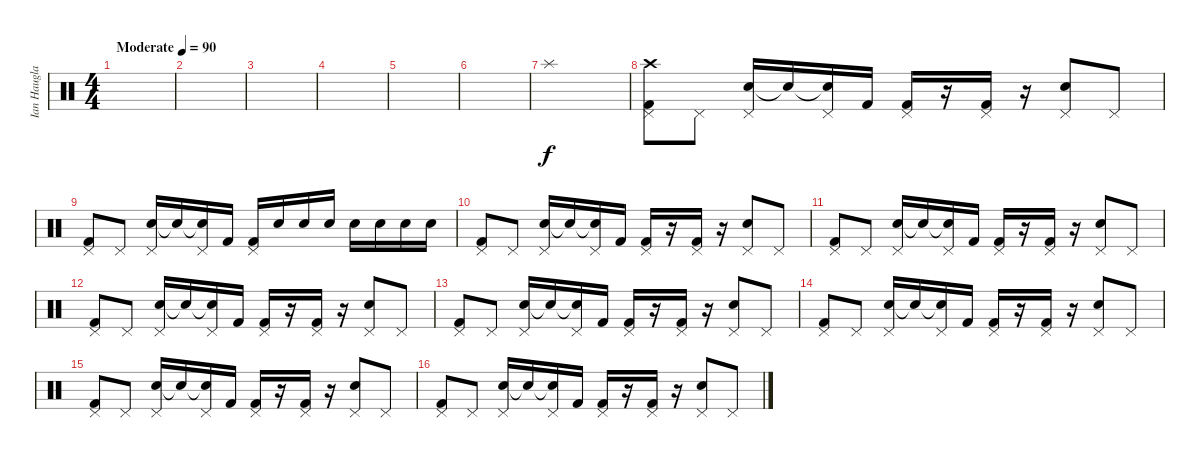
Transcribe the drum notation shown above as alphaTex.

\track ("Ian Haugland" "Ian Haugla") {instrument percussion}
\staff {score}
\articulation defaults
\ts (4 4)
\tempo (90 "Moderate")
\clef neutral
\ks c
|
|
|
|
|
|
"Splash (hit)".1 |
("Kick (hit) 2" "Pedal Hi-Hat (hit)" "Crash high (hit)").8 "Pedal Hi-Hat (hit)".8 ("Electric Snare (hit)" "Pedal Hi-Hat (hit)").16 "Snare (hit)"{t}.16 ("Snare (hit)"{t} "Pedal Hi-Hat (hit)").16 "Kick (hit) 2".16 ("Kick (hit) 2" "Pedal Hi-Hat (hit)").16 r.16 ("Kick (hit) 2" "Pedal Hi-Hat (hit)").16 r.16 ("Electric Snare (hit)" "Pedal Hi-Hat (hit)").8 "Pedal Hi-Hat (hit)".8 |
("Kick (hit) 2" "Pedal Hi-Hat (hit)").8 "Pedal Hi-Hat (hit)".8 ("Electric Snare (hit)" "Pedal Hi-Hat (hit)").16 "Snare (hit)"{t}.16 ("Snare (hit)"{t} "Pedal Hi-Hat (hit)").16 "Kick (hit) 2".16 ("Kick (hit) 2" "Pedal Hi-Hat (hit)").16 "Snare (hit) 2".16 "Snare (hit) 2".16 "Snare (hit) 2".16 "Snare (hit) 2".16 "Snare (hit) 2".16 "Snare (hit) 2".16 "Snare (hit) 2".16 |
("Kick (hit) 2" "Pedal Hi-Hat (hit)").8 "Pedal Hi-Hat (hit)".8 ("Electric Snare (hit)" "Pedal Hi-Hat (hit)").16 "Snare (hit)"{t}.16 ("Snare (hit)"{t} "Pedal Hi-Hat (hit)").16 "Kick (hit) 2".16 ("Kick (hit) 2" "Pedal Hi-Hat (hit)").16 r.16 ("Kick (hit) 2" "Pedal Hi-Hat (hit)").16 r.16 ("Electric Snare (hit)" "Pedal Hi-Hat (hit)").8 "Pedal Hi-Hat (hit)".8 |
("Kick (hit) 2" "Pedal Hi-Hat (hit)").8 "Pedal Hi-Hat (hit)".8 ("Electric Snare (hit)" "Pedal Hi-Hat (hit)").16 "Snare (hit)"{t}.16 ("Snare (hit)"{t} "Pedal Hi-Hat (hit)").16 "Kick (hit) 2".16 ("Kick (hit) 2" "Pedal Hi-Hat (hit)").16 r.16 ("Kick (hit) 2" "Pedal Hi-Hat (hit)").16 r.16 ("Electric Snare (hit)" "Pedal Hi-Hat (hit)").8 "Pedal Hi-Hat (hit)".8 |
("Kick (hit) 2" "Pedal Hi-Hat (hit)").8 "Pedal Hi-Hat (hit)".8 ("Electric Snare (hit)" "Pedal Hi-Hat (hit)").16 "Snare (hit)"{t}.16 ("Snare (hit)"{t} "Pedal Hi-Hat (hit)").16 "Kick (hit) 2".16 ("Kick (hit) 2" "Pedal Hi-Hat (hit)").16 r.16 ("Kick (hit) 2" "Pedal Hi-Hat (hit)").16 r.16 ("Electric Snare (hit)" "Pedal Hi-Hat (hit)").8 "Pedal Hi-Hat (hit)".8 |
("Kick (hit) 2" "Pedal Hi-Hat (hit)").8 "Pedal Hi-Hat (hit)".8 ("Electric Snare (hit)" "Pedal Hi-Hat (hit)").16 "Snare (hit)"{t}.16 ("Snare (hit)"{t} "Pedal Hi-Hat (hit)").16 "Kick (hit) 2".16 ("Kick (hit) 2" "Pedal Hi-Hat (hit)").16 r.16 ("Kick (hit) 2" "Pedal Hi-Hat (hit)").16 r.16 ("Electric Snare (hit)" "Pedal Hi-Hat (hit)").8 "Pedal Hi-Hat (hit)".8 |
("Kick (hit) 2" "Pedal Hi-Hat (hit)").8 "Pedal Hi-Hat (hit)".8 ("Electric Snare (hit)" "Pedal Hi-Hat (hit)").16 "Snare (hit)"{t}.16 ("Snare (hit)"{t} "Pedal Hi-Hat (hit)").16 "Kick (hit) 2".16 ("Kick (hit) 2" "Pedal Hi-Hat (hit)").16 r.16 ("Kick (hit) 2" "Pedal Hi-Hat (hit)").16 r.16 ("Electric Snare (hit)" "Pedal Hi-Hat (hit)").8 "Pedal Hi-Hat (hit)".8 |
("Kick (hit) 2" "Pedal Hi-Hat (hit)").8 "Pedal Hi-Hat (hit)".8 ("Electric Snare (hit)" "Pedal Hi-Hat (hit)").16 "Snare (hit)"{t}.16 ("Snare (hit)"{t} "Pedal Hi-Hat (hit)").16 "Kick (hit) 2".16 ("Kick (hit) 2" "Pedal Hi-Hat (hit)").16 r.16 ("Kick (hit) 2" "Pedal Hi-Hat (hit)").16 r.16 ("Electric Snare (hit)" "Pedal Hi-Hat (hit)").8 "Pedal Hi-Hat (hit)".8 |
("Kick (hit) 2" "Pedal Hi-Hat (hit)").8 "Pedal Hi-Hat (hit)".8 ("Electric Snare (hit)" "Pedal Hi-Hat (hit)").16 "Snare (hit)"{t}.16 ("Snare (hit)"{t} "Pedal Hi-Hat (hit)").16 "Kick (hit) 2".16 ("Kick (hit) 2" "Pedal Hi-Hat (hit)").16 r.16 ("Kick (hit) 2" "Pedal Hi-Hat (hit)").16 r.16 ("Electric Snare (hit)" "Pedal Hi-Hat (hit)").8 "Pedal Hi-Hat (hit)".8
